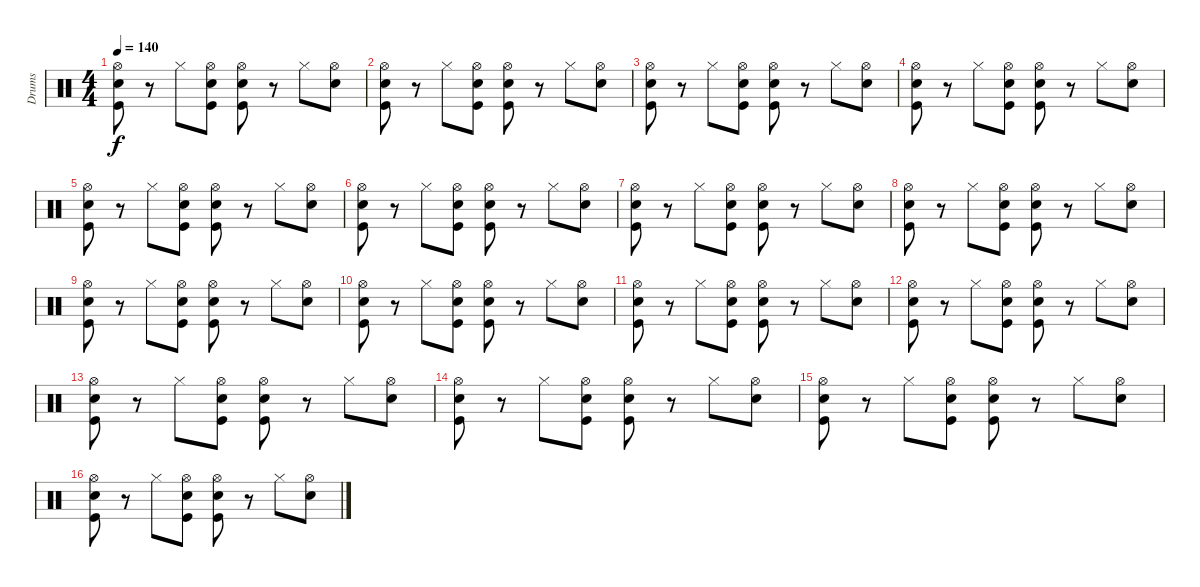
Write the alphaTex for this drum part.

\track ("Drums" "Drums") {instrument percussion}
\staff {score}
\articulation defaults
\ts (4 4)
\tempo 140
\clef neutral
\ks c
("Snare (hit)" "Kick (hit)" "Hi-Hat (open)").8{dy f} r.8 "Hi-Hat (closed)".8 ("Snare (hit)" "Kick (hit)" "Hi-Hat (open)").8 ("Snare (hit)" "Kick (hit)" "Hi-Hat (open)").8 r.8 "Hi-Hat (closed)".8 ("Snare (hit)" "Hi-Hat (open)").8 |
("Snare (hit)" "Kick (hit)" "Hi-Hat (open)").8 r.8 "Hi-Hat (closed)".8 ("Snare (hit)" "Kick (hit)" "Hi-Hat (open)").8 ("Snare (hit)" "Kick (hit)" "Hi-Hat (open)").8 r.8 "Hi-Hat (closed)".8 ("Snare (hit)" "Hi-Hat (open)").8 |
("Snare (hit)" "Kick (hit)" "Hi-Hat (open)").8 r.8 "Hi-Hat (closed)".8 ("Snare (hit)" "Kick (hit)" "Hi-Hat (open)").8 ("Snare (hit)" "Kick (hit)" "Hi-Hat (open)").8 r.8 "Hi-Hat (closed)".8 ("Snare (hit)" "Hi-Hat (open)").8 |
("Snare (hit)" "Kick (hit)" "Hi-Hat (open)").8 r.8 "Hi-Hat (closed)".8 ("Snare (hit)" "Kick (hit)" "Hi-Hat (open)").8 ("Snare (hit)" "Kick (hit)" "Hi-Hat (open)").8 r.8 "Hi-Hat (closed)".8 ("Snare (hit)" "Hi-Hat (open)").8 |
("Snare (hit)" "Kick (hit)" "Hi-Hat (open)").8 r.8 "Hi-Hat (closed)".8 ("Snare (hit)" "Kick (hit)" "Hi-Hat (open)").8 ("Snare (hit)" "Kick (hit)" "Hi-Hat (open)").8 r.8 "Hi-Hat (closed)".8 ("Snare (hit)" "Hi-Hat (open)").8 |
("Snare (hit)" "Kick (hit)" "Hi-Hat (open)").8 r.8 "Hi-Hat (closed)".8 ("Snare (hit)" "Kick (hit)" "Hi-Hat (open)").8 ("Snare (hit)" "Kick (hit)" "Hi-Hat (open)").8 r.8 "Hi-Hat (closed)".8 ("Snare (hit)" "Hi-Hat (open)").8 |
("Snare (hit)" "Kick (hit)" "Hi-Hat (open)").8 r.8 "Hi-Hat (closed)".8 ("Snare (hit)" "Kick (hit)" "Hi-Hat (open)").8 ("Snare (hit)" "Kick (hit)" "Hi-Hat (open)").8 r.8 "Hi-Hat (closed)".8 ("Snare (hit)" "Hi-Hat (open)").8 |
("Snare (hit)" "Kick (hit)" "Hi-Hat (open)").8 r.8 "Hi-Hat (closed)".8 ("Snare (hit)" "Kick (hit)" "Hi-Hat (open)").8 ("Snare (hit)" "Kick (hit)" "Hi-Hat (open)").8 r.8 "Hi-Hat (closed)".8 ("Snare (hit)" "Hi-Hat (open)").8 |
("Snare (hit)" "Kick (hit)" "Hi-Hat (open)").8 r.8 "Hi-Hat (closed)".8 ("Snare (hit)" "Kick (hit)" "Hi-Hat (open)").8 ("Snare (hit)" "Kick (hit)" "Hi-Hat (open)").8 r.8 "Hi-Hat (closed)".8 ("Snare (hit)" "Hi-Hat (open)").8 |
("Snare (hit)" "Kick (hit)" "Hi-Hat (open)").8 r.8 "Hi-Hat (closed)".8 ("Snare (hit)" "Kick (hit)" "Hi-Hat (open)").8 ("Snare (hit)" "Kick (hit)" "Hi-Hat (open)").8 r.8 "Hi-Hat (closed)".8 ("Snare (hit)" "Hi-Hat (open)").8 |
("Snare (hit)" "Kick (hit)" "Hi-Hat (open)").8 r.8 "Hi-Hat (closed)".8 ("Snare (hit)" "Kick (hit)" "Hi-Hat (open)").8 ("Snare (hit)" "Kick (hit)" "Hi-Hat (open)").8 r.8 "Hi-Hat (closed)".8 ("Snare (hit)" "Hi-Hat (open)").8 |
("Snare (hit)" "Kick (hit)" "Hi-Hat (open)").8 r.8 "Hi-Hat (closed)".8 ("Snare (hit)" "Kick (hit)" "Hi-Hat (open)").8 ("Snare (hit)" "Kick (hit)" "Hi-Hat (open)").8 r.8 "Hi-Hat (closed)".8 ("Snare (hit)" "Hi-Hat (open)").8 |
("Snare (hit)" "Kick (hit)" "Hi-Hat (open)").8 r.8 "Hi-Hat (closed)".8 ("Snare (hit)" "Kick (hit)" "Hi-Hat (open)").8 ("Snare (hit)" "Kick (hit)" "Hi-Hat (open)").8 r.8 "Hi-Hat (closed)".8 ("Snare (hit)" "Hi-Hat (open)").8 |
("Snare (hit)" "Kick (hit)" "Hi-Hat (open)").8 r.8 "Hi-Hat (closed)".8 ("Snare (hit)" "Kick (hit)" "Hi-Hat (open)").8 ("Snare (hit)" "Kick (hit)" "Hi-Hat (open)").8 r.8 "Hi-Hat (closed)".8 ("Snare (hit)" "Hi-Hat (open)").8 |
("Snare (hit)" "Kick (hit)" "Hi-Hat (open)").8 r.8 "Hi-Hat (closed)".8 ("Snare (hit)" "Kick (hit)" "Hi-Hat (open)").8 ("Snare (hit)" "Kick (hit)" "Hi-Hat (open)").8 r.8 "Hi-Hat (closed)".8 ("Snare (hit)" "Hi-Hat (open)").8 |
("Snare (hit)" "Kick (hit)" "Hi-Hat (open)").8 r.8 "Hi-Hat (closed)".8 ("Snare (hit)" "Kick (hit)" "Hi-Hat (open)").8 ("Snare (hit)" "Kick (hit)" "Hi-Hat (open)").8 r.8 "Hi-Hat (closed)".8 ("Snare (hit)" "Hi-Hat (open)").8
